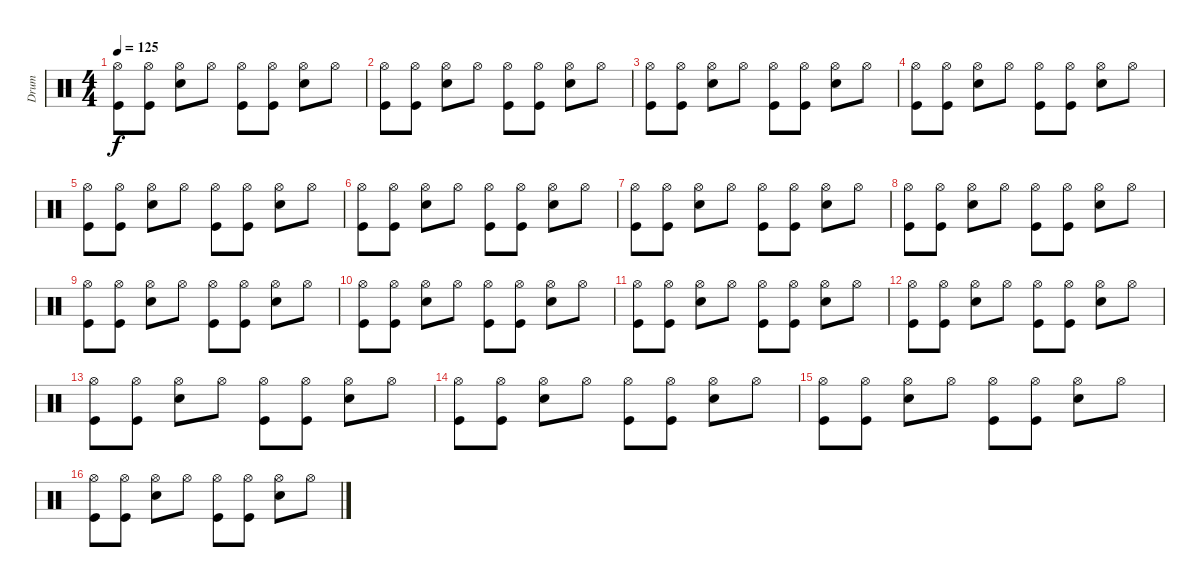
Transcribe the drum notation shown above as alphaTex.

\track ("Drum" "Drum") {instrument percussion}
\staff {score}
\articulation defaults
\ts (4 4)
\tempo 125
\clef neutral
\ks c
("Hi-Hat (open)" "Kick (hit)").8{dy f} ("Hi-Hat (open)" "Kick (hit)").8 ("Hi-Hat (open)" "Snare (hit) 2").8 "Hi-Hat (open)".8 ("Hi-Hat (open)" "Kick (hit)").8 ("Hi-Hat (open)" "Kick (hit)").8 ("Hi-Hat (open)" "Snare (hit) 2").8 "Hi-Hat (open)".8 |
("Hi-Hat (open)" "Kick (hit)").8 ("Hi-Hat (open)" "Kick (hit)").8 ("Hi-Hat (open)" "Snare (hit) 2").8 "Hi-Hat (open)".8 ("Hi-Hat (open)" "Kick (hit)").8 ("Hi-Hat (open)" "Kick (hit)").8 ("Hi-Hat (open)" "Snare (hit) 2").8 "Hi-Hat (open)".8 |
("Hi-Hat (open)" "Kick (hit)").8 ("Hi-Hat (open)" "Kick (hit)").8 ("Hi-Hat (open)" "Snare (hit) 2").8 "Hi-Hat (open)".8 ("Hi-Hat (open)" "Kick (hit)").8 ("Hi-Hat (open)" "Kick (hit)").8 ("Hi-Hat (open)" "Snare (hit) 2").8 "Hi-Hat (open)".8 |
("Hi-Hat (open)" "Kick (hit)").8 ("Hi-Hat (open)" "Kick (hit)").8 ("Hi-Hat (open)" "Snare (hit) 2").8 "Hi-Hat (open)".8 ("Hi-Hat (open)" "Kick (hit)").8 ("Hi-Hat (open)" "Kick (hit)").8 ("Hi-Hat (open)" "Snare (hit) 2").8 "Hi-Hat (open)".8 |
("Hi-Hat (open)" "Kick (hit)").8 ("Hi-Hat (open)" "Kick (hit)").8 ("Hi-Hat (open)" "Snare (hit) 2").8 "Hi-Hat (open)".8 ("Hi-Hat (open)" "Kick (hit)").8 ("Hi-Hat (open)" "Kick (hit)").8 ("Hi-Hat (open)" "Snare (hit) 2").8 "Hi-Hat (open)".8 |
("Hi-Hat (open)" "Kick (hit)").8 ("Hi-Hat (open)" "Kick (hit)").8 ("Hi-Hat (open)" "Snare (hit) 2").8 "Hi-Hat (open)".8 ("Hi-Hat (open)" "Kick (hit)").8 ("Hi-Hat (open)" "Kick (hit)").8 ("Hi-Hat (open)" "Snare (hit) 2").8 "Hi-Hat (open)".8 |
("Hi-Hat (open)" "Kick (hit)").8 ("Hi-Hat (open)" "Kick (hit)").8 ("Hi-Hat (open)" "Snare (hit) 2").8 "Hi-Hat (open)".8 ("Hi-Hat (open)" "Kick (hit)").8 ("Hi-Hat (open)" "Kick (hit)").8 ("Hi-Hat (open)" "Snare (hit) 2").8 "Hi-Hat (open)".8 |
("Hi-Hat (open)" "Kick (hit)").8 ("Hi-Hat (open)" "Kick (hit)").8 ("Hi-Hat (open)" "Snare (hit) 2").8 "Hi-Hat (open)".8 ("Hi-Hat (open)" "Kick (hit)").8 ("Hi-Hat (open)" "Kick (hit)").8 ("Hi-Hat (open)" "Snare (hit) 2").8 "Hi-Hat (open)".8 |
("Hi-Hat (open)" "Kick (hit)").8 ("Hi-Hat (open)" "Kick (hit)").8 ("Hi-Hat (open)" "Snare (hit) 2").8 "Hi-Hat (open)".8 ("Hi-Hat (open)" "Kick (hit)").8 ("Hi-Hat (open)" "Kick (hit)").8 ("Hi-Hat (open)" "Snare (hit) 2").8 "Hi-Hat (open)".8 |
("Hi-Hat (open)" "Kick (hit)").8 ("Hi-Hat (open)" "Kick (hit)").8 ("Hi-Hat (open)" "Snare (hit) 2").8 "Hi-Hat (open)".8 ("Hi-Hat (open)" "Kick (hit)").8 ("Hi-Hat (open)" "Kick (hit)").8 ("Hi-Hat (open)" "Snare (hit) 2").8 "Hi-Hat (open)".8 |
("Hi-Hat (open)" "Kick (hit)").8 ("Hi-Hat (open)" "Kick (hit)").8 ("Hi-Hat (open)" "Snare (hit) 2").8 "Hi-Hat (open)".8 ("Hi-Hat (open)" "Kick (hit)").8 ("Hi-Hat (open)" "Kick (hit)").8 ("Hi-Hat (open)" "Snare (hit) 2").8 "Hi-Hat (open)".8 |
("Hi-Hat (open)" "Kick (hit)").8 ("Hi-Hat (open)" "Kick (hit)").8 ("Hi-Hat (open)" "Snare (hit) 2").8 "Hi-Hat (open)".8 ("Hi-Hat (open)" "Kick (hit)").8 ("Hi-Hat (open)" "Kick (hit)").8 ("Hi-Hat (open)" "Snare (hit) 2").8 "Hi-Hat (open)".8 |
("Hi-Hat (open)" "Kick (hit)").8 ("Hi-Hat (open)" "Kick (hit)").8 ("Hi-Hat (open)" "Snare (hit) 2").8 "Hi-Hat (open)".8 ("Hi-Hat (open)" "Kick (hit)").8 ("Hi-Hat (open)" "Kick (hit)").8 ("Hi-Hat (open)" "Snare (hit) 2").8 "Hi-Hat (open)".8 |
("Hi-Hat (open)" "Kick (hit)").8 ("Hi-Hat (open)" "Kick (hit)").8 ("Hi-Hat (open)" "Snare (hit) 2").8 "Hi-Hat (open)".8 ("Hi-Hat (open)" "Kick (hit)").8 ("Hi-Hat (open)" "Kick (hit)").8 ("Hi-Hat (open)" "Snare (hit) 2").8 "Hi-Hat (open)".8 |
("Hi-Hat (open)" "Kick (hit)").8 ("Hi-Hat (open)" "Kick (hit)").8 ("Hi-Hat (open)" "Snare (hit) 2").8 "Hi-Hat (open)".8 ("Hi-Hat (open)" "Kick (hit)").8 ("Hi-Hat (open)" "Kick (hit)").8 ("Hi-Hat (open)" "Snare (hit) 2").8 "Hi-Hat (open)".8 |
("Hi-Hat (open)" "Kick (hit)").8 ("Hi-Hat (open)" "Kick (hit)").8 ("Hi-Hat (open)" "Snare (hit) 2").8 "Hi-Hat (open)".8 ("Hi-Hat (open)" "Kick (hit)").8 ("Hi-Hat (open)" "Kick (hit)").8 ("Hi-Hat (open)" "Snare (hit) 2").8 "Hi-Hat (open)".8
